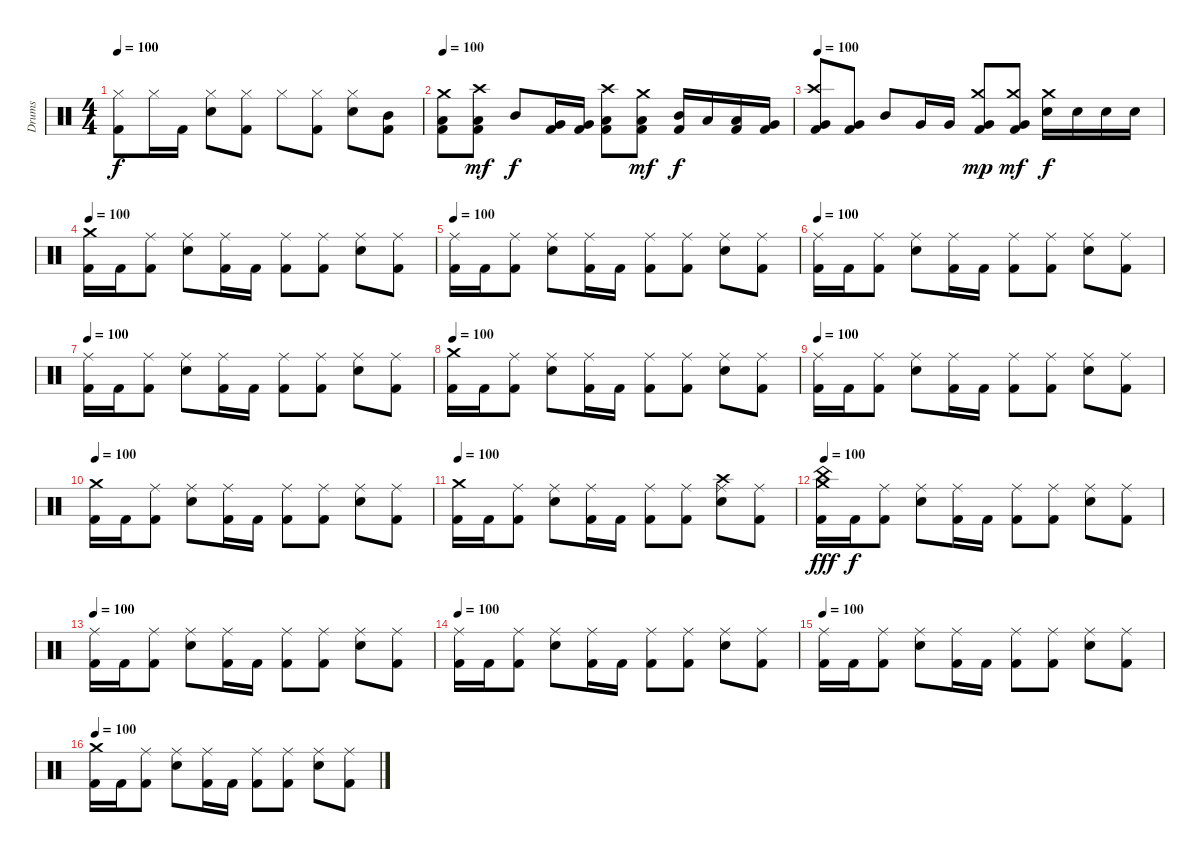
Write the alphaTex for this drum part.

\track ("Drums" "Drums") {instrument percussion}
\staff {score}
\articulation defaults
\ts (4 4)
\tempo 100
\clef neutral
\ks c
("Hi-Hat (closed)" "Kick (hit) 2").8{dy f} "Hi-Hat (closed)".16 "Kick (hit) 2".16 ("Electric Snare (hit)" "Hi-Hat (closed)").8 ("Hi-Hat (closed)" "Kick (hit) 2").8 "Hi-Hat (closed)".8 ("Hi-Hat (closed)" "Kick (hit) 2").8 ("Electric Snare (hit)" "Hi-Hat (closed)").8 ("Mid Tom (hit)" "Kick (hit) 2").8 |
\tempo 100
("Crash medium (hit)" "Low Tom (hit)" "Kick (hit) 2").8 ("Crash high (hit)" "Low Tom (hit)" "Kick (hit) 2").8{dy mf} "Mid Tom (hit)".8{dy f} ("Very Low Tom (hit)" "Kick (hit) 2").16 ("Very Low Tom (hit)" "Kick (hit) 2").16 ("Crash high (hit)" "Low Tom (hit)" "Kick (hit) 2").8 ("Crash medium (hit)" "Low Tom (hit)" "Kick (hit) 2").8{dy mf} ("Mid Tom (hit)" "Kick (hit) 2").16{dy f} "Low Tom (hit)".16 ("Low Tom (hit)" "Kick (hit) 2").16 ("Very Low Tom (hit)" "Kick (hit) 2").16 |
\tempo 100
("Crash high (hit)" "Very Low Tom (hit)" "Kick (hit) 2").8 ("Very Low Tom (hit)" "Kick (hit) 2").8 "Mid Tom (hit)".8 "Very Low Tom (hit)".16 "Very Low Tom (hit)".16 ("Crash medium (hit)" "Very Low Tom (hit)" "Kick (hit) 2").8{dy mp} ("Crash medium (hit)" "Very Low Tom (hit)" "Kick (hit) 2").8{dy mf} ("Crash medium (hit)" "Electric Snare (hit)").16{dy f} "Electric Snare (hit)".16 "Electric Snare (hit)".16 "Electric Snare (hit)".16 |
\tempo 100
("Crash medium (hit)" "Kick (hit) 2").16 "Kick (hit) 2".16 ("Ride (middle)" "Kick (hit) 2").8 ("Ride (middle)" "Electric Snare (hit)").8 ("Ride (middle)" "Kick (hit) 2").16 "Kick (hit) 2".16 ("Ride (middle)" "Kick (hit) 2").8 ("Ride (middle)" "Kick (hit) 2").8 ("Ride (middle)" "Electric Snare (hit)").8 ("Ride (middle)" "Kick (hit) 2").8 |
\tempo 100
("Ride (middle)" "Kick (hit) 2").16 "Kick (hit) 2".16 ("Ride (middle)" "Kick (hit) 2").8 ("Ride (middle)" "Electric Snare (hit)").8 ("Ride (middle)" "Kick (hit) 2").16 "Kick (hit) 2".16 ("Ride (middle)" "Kick (hit) 2").8 ("Ride (middle)" "Kick (hit) 2").8 ("Ride (middle)" "Electric Snare (hit)").8 ("Ride (middle)" "Kick (hit) 2").8 |
\tempo 100
("Ride (middle)" "Kick (hit) 2").16 "Kick (hit) 2".16 ("Ride (middle)" "Kick (hit) 2").8 ("Ride (middle)" "Electric Snare (hit)").8 ("Ride (middle)" "Kick (hit) 2").16 "Kick (hit) 2".16 ("Ride (middle)" "Kick (hit) 2").8 ("Ride (middle)" "Kick (hit) 2").8 ("Ride (middle)" "Electric Snare (hit)").8 ("Ride (middle)" "Kick (hit) 2").8 |
\tempo 100
("Ride (middle)" "Kick (hit) 2").16 "Kick (hit) 2".16 ("Ride (middle)" "Kick (hit) 2").8 ("Ride (middle)" "Electric Snare (hit)").8 ("Ride (middle)" "Kick (hit) 2").16 "Kick (hit) 2".16 ("Ride (middle)" "Kick (hit) 2").8 ("Ride (middle)" "Kick (hit) 2").8 ("Ride (middle)" "Electric Snare (hit)").8 ("Ride (middle)" "Kick (hit) 2").8 |
\tempo 100
("Crash medium (hit)" "Kick (hit) 2").16 "Kick (hit) 2".16 ("Ride (middle)" "Kick (hit) 2").8 ("Ride (middle)" "Electric Snare (hit)").8 ("Ride (middle)" "Kick (hit) 2").16 "Kick (hit) 2".16 ("Ride (middle)" "Kick (hit) 2").8 ("Ride (middle)" "Kick (hit) 2").8 ("Ride (middle)" "Electric Snare (hit)").8 ("Ride (middle)" "Kick (hit) 2").8 |
\tempo 100
("Ride (middle)" "Kick (hit) 2").16 "Kick (hit) 2".16 ("Ride (middle)" "Kick (hit) 2").8 ("Ride (middle)" "Electric Snare (hit)").8 ("Ride (middle)" "Kick (hit) 2").16 "Kick (hit) 2".16 ("Ride (middle)" "Kick (hit) 2").8 ("Ride (middle)" "Kick (hit) 2").8 ("Ride (middle)" "Electric Snare (hit)").8 ("Ride (middle)" "Kick (hit) 2").8 |
\tempo 100
("Crash medium (hit)" "Kick (hit) 2").16 "Kick (hit) 2".16 ("Ride (middle)" "Kick (hit) 2").8 ("Ride (middle)" "Electric Snare (hit)").8 ("Ride (middle)" "Kick (hit) 2").16 "Kick (hit) 2".16 ("Ride (middle)" "Kick (hit) 2").8 ("Ride (middle)" "Kick (hit) 2").8 ("Ride (middle)" "Electric Snare (hit)").8 ("Ride (middle)" "Kick (hit) 2").8 |
\tempo 100
("Crash medium (hit)" "Kick (hit) 2").16 "Kick (hit) 2".16 ("Ride (middle)" "Kick (hit) 2").8 ("Ride (middle)" "Electric Snare (hit)").8 ("Ride (middle)" "Kick (hit) 2").16 "Kick (hit) 2".16 ("Ride (middle)" "Kick (hit) 2").8 ("Ride (middle)" "Kick (hit) 2").8 ("Crash high (hit)" "Ride (middle)" "Electric Snare (hit)").8 ("Ride (middle)" "Kick (hit) 2").8 |
\tempo 100
("Crash medium (hit)" "China (hit)" "Kick (hit) 2").16{dy fff} "Kick (hit) 2".16{dy f} ("Ride (middle)" "Kick (hit) 2").8 ("Ride (middle)" "Electric Snare (hit)").8 ("Ride (middle)" "Kick (hit) 2").16 "Kick (hit) 2".16 ("Ride (middle)" "Kick (hit) 2").8 ("Ride (middle)" "Kick (hit) 2").8 ("Ride (middle)" "Electric Snare (hit)").8 ("Ride (middle)" "Kick (hit) 2").8 |
\tempo 100
("Ride (middle)" "Kick (hit) 2").16 "Kick (hit) 2".16 ("Ride (middle)" "Kick (hit) 2").8 ("Ride (middle)" "Electric Snare (hit)").8 ("Ride (middle)" "Kick (hit) 2").16 "Kick (hit) 2".16 ("Ride (middle)" "Kick (hit) 2").8 ("Ride (middle)" "Kick (hit) 2").8 ("Ride (middle)" "Electric Snare (hit)").8 ("Ride (middle)" "Kick (hit) 2").8 |
\tempo 100
("Ride (middle)" "Kick (hit) 2").16 "Kick (hit) 2".16 ("Ride (middle)" "Kick (hit) 2").8 ("Ride (middle)" "Electric Snare (hit)").8 ("Ride (middle)" "Kick (hit) 2").16 "Kick (hit) 2".16 ("Ride (middle)" "Kick (hit) 2").8 ("Ride (middle)" "Kick (hit) 2").8 ("Ride (middle)" "Electric Snare (hit)").8 ("Ride (middle)" "Kick (hit) 2").8 |
\tempo 100
("Ride (middle)" "Kick (hit) 2").16 "Kick (hit) 2".16 ("Ride (middle)" "Kick (hit) 2").8 ("Ride (middle)" "Electric Snare (hit)").8 ("Ride (middle)" "Kick (hit) 2").16 "Kick (hit) 2".16 ("Ride (middle)" "Kick (hit) 2").8 ("Ride (middle)" "Kick (hit) 2").8 ("Ride (middle)" "Electric Snare (hit)").8 ("Ride (middle)" "Kick (hit) 2").8 |
\tempo 100
("Crash medium (hit)" "Kick (hit) 2").16 "Kick (hit) 2".16 ("Ride (middle)" "Kick (hit) 2").8 ("Ride (middle)" "Electric Snare (hit)").8 ("Ride (middle)" "Kick (hit) 2").16 "Kick (hit) 2".16 ("Ride (middle)" "Kick (hit) 2").8 ("Ride (middle)" "Kick (hit) 2").8 ("Ride (middle)" "Electric Snare (hit)").8 ("Ride (middle)" "Kick (hit) 2").8
